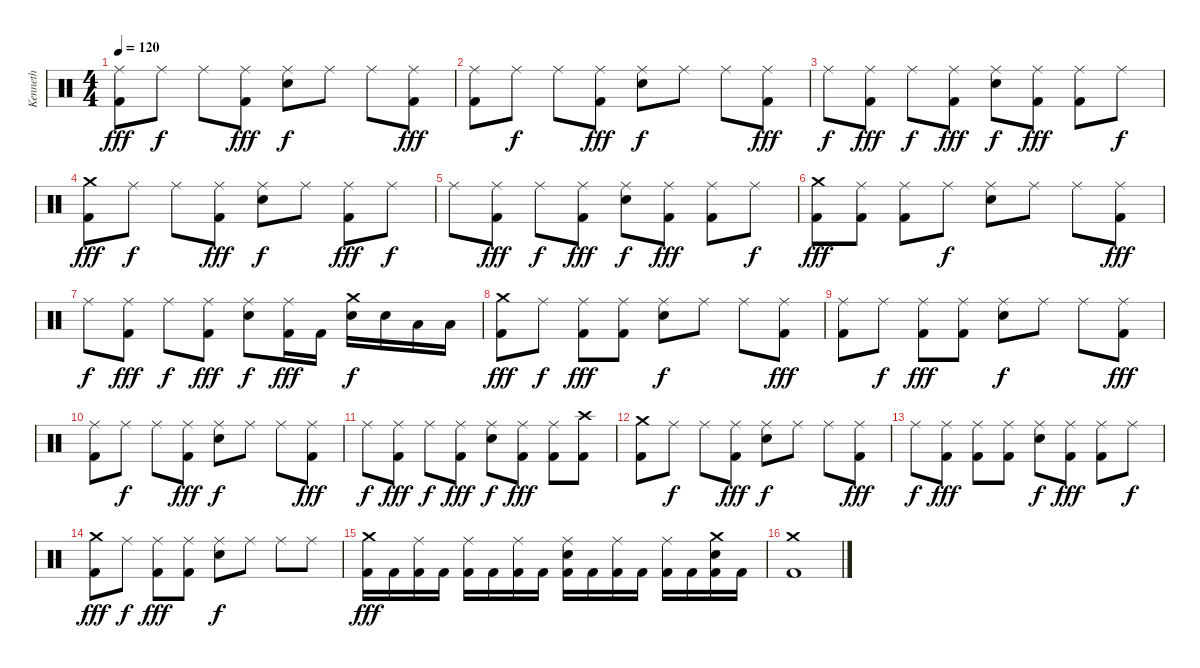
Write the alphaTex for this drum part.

\track ("Kenneth" "Kenneth") {instrument percussion}
\staff {score}
\articulation defaults
\ts (4 4)
\tempo 120
\clef neutral
\ks c
("Ride (middle)" "Kick (hit) 2").8{dy fff} "Ride (middle)".8{dy f} "Ride (middle)".8 ("Ride (middle)" "Kick (hit) 2").8{dy fff} ("Ride (middle)" "Snare (hit) 2").8{dy f} "Ride (middle)".8 "Ride (middle)".8 ("Ride (middle)" "Kick (hit) 2").8{dy fff} |
("Ride (middle)" "Kick (hit) 2").8 "Ride (middle)".8{dy f} "Ride (middle)".8 ("Ride (middle)" "Kick (hit) 2").8{dy fff} ("Ride (middle)" "Snare (hit) 2").8{dy f} "Ride (middle)".8 "Ride (middle)".8 ("Ride (middle)" "Kick (hit) 2").8{dy fff} |
"Ride (middle)".8{dy f} ("Ride (middle)" "Kick (hit) 2").8{dy fff} "Ride (middle)".8{dy f} ("Ride (middle)" "Kick (hit) 2").8{dy fff} ("Ride (middle)" "Snare (hit) 2").8{dy f} ("Ride (middle)" "Kick (hit) 2").8{dy fff} ("Ride (middle)" "Kick (hit) 2").8 "Ride (middle)".8{dy f} |
("Crash medium (hit)" "Kick (hit) 2").8{dy fff} "Ride (middle)".8{dy f} "Ride (middle)".8 ("Ride (middle)" "Kick (hit) 2").8{dy fff} ("Ride (middle)" "Snare (hit) 2").8{dy f} "Ride (middle)".8 ("Ride (middle)" "Kick (hit) 2").8{dy fff} "Ride (middle)".8{dy f} |
"Ride (middle)".8 ("Ride (middle)" "Kick (hit) 2").8{dy fff} "Ride (middle)".8{dy f} ("Ride (middle)" "Kick (hit) 2").8{dy fff} ("Ride (middle)" "Snare (hit) 2").8{dy f} ("Ride (middle)" "Kick (hit) 2").8{dy fff} ("Ride (middle)" "Kick (hit) 2").8 "Ride (middle)".8{dy f} |
("Crash medium (hit)" "Kick (hit) 2").8{dy fff} ("Ride (middle)" "Kick (hit) 2").8 ("Ride (middle)" "Kick (hit) 2").8 "Ride (middle)".8{dy f} ("Ride (middle)" "Snare (hit) 2").8 "Ride (middle)".8 "Ride (middle)".8 ("Ride (middle)" "Kick (hit) 2").8{dy fff} |
"Ride (middle)".8{dy f} ("Ride (middle)" "Kick (hit) 2").8{dy fff} "Ride (middle)".8{dy f} ("Ride (middle)" "Kick (hit) 2").8{dy fff} ("Ride (middle)" "Snare (hit) 2").8{dy f} ("Ride (middle)" "Kick (hit) 2").16{dy fff} "Kick (hit) 2".16 ("Crash medium (hit)" "Snare (hit) 2").16{dy f} "Snare (hit) 2".16 "Low Tom (hit)".16 "Low Tom (hit)".16 |
("Crash medium (hit)" "Kick (hit) 2").8{dy fff} "Ride (middle)".8{dy f} ("Ride (middle)" "Kick (hit) 2").8{dy fff} ("Ride (middle)" "Kick (hit) 2").8 ("Ride (middle)" "Snare (hit) 2").8{dy f} "Ride (middle)".8 "Ride (middle)".8 ("Ride (middle)" "Kick (hit) 2").8{dy fff} |
("Ride (middle)" "Kick (hit) 2").8 "Ride (middle)".8{dy f} ("Ride (middle)" "Kick (hit) 2").8{dy fff} ("Ride (middle)" "Kick (hit) 2").8 ("Ride (middle)" "Snare (hit) 2").8{dy f} "Ride (middle)".8 "Ride (middle)".8 ("Ride (middle)" "Kick (hit) 2").8{dy fff} |
("Ride (middle)" "Kick (hit) 2").8 "Ride (middle)".8{dy f} "Ride (middle)".8 ("Ride (middle)" "Kick (hit) 2").8{dy fff} ("Ride (middle)" "Snare (hit) 2").8{dy f} "Ride (middle)".8 "Ride (middle)".8 ("Ride (middle)" "Kick (hit) 2").8{dy fff} |
"Ride (middle)".8{dy f} ("Ride (middle)" "Kick (hit) 2").8{dy fff} "Ride (middle)".8{dy f} ("Ride (middle)" "Kick (hit) 2").8{dy fff} ("Ride (middle)" "Snare (hit) 2").8{dy f} ("Ride (middle)" "Kick (hit) 2").8{dy fff} ("Ride (middle)" "Kick (hit) 2").8 ("Crash high (hit)" "Kick (hit) 2").8 |
("Crash medium (hit)" "Kick (hit) 2").8 "Ride (middle)".8{dy f} "Ride (middle)".8 ("Ride (middle)" "Kick (hit) 2").8{dy fff} ("Ride (middle)" "Snare (hit) 2").8{dy f} "Ride (middle)".8 "Ride (middle)".8 ("Ride (middle)" "Kick (hit) 2").8{dy fff} |
"Ride (middle)".8{dy f} ("Ride (middle)" "Kick (hit) 2").8{dy fff} ("Ride (middle)" "Kick (hit) 2").8 ("Ride (middle)" "Kick (hit) 2").8 ("Ride (middle)" "Snare (hit) 2").8{dy f} ("Ride (middle)" "Kick (hit) 2").8{dy fff} ("Ride (middle)" "Kick (hit) 2").8 "Ride (middle)".8{dy f} |
("Crash medium (hit)" "Kick (hit) 2").8{dy fff} "Ride (middle)".8{dy f} ("Ride (middle)" "Kick (hit) 2").8{dy fff} ("Ride (middle)" "Kick (hit) 2").8 ("Ride (middle)" "Snare (hit) 2").8{dy f} "Ride (middle)".8 "Ride (middle)".8 "Ride (middle)".8 |
("Crash medium (hit)" "Kick (hit) 2").16{dy fff} "Kick (hit) 2".16 ("Ride (middle)" "Kick (hit) 2").16 "Kick (hit) 2".16 ("Ride (middle)" "Kick (hit) 2").16 "Kick (hit) 2".16 ("Ride (middle)" "Kick (hit) 2").16 "Kick (hit) 2".16 ("Ride (middle)" "Snare (hit) 2" "Kick (hit) 2").16 "Kick (hit) 2".16 ("Ride (middle)" "Kick (hit) 2").16 "Kick (hit) 2".16 ("Ride (middle)" "Kick (hit) 2").16 "Kick (hit) 2".16 ("Crash medium (hit)" "Snare (hit) 2" "Kick (hit) 2").16 "Kick (hit) 2".16 |
("Crash medium (hit)" "Kick (hit) 2").1
